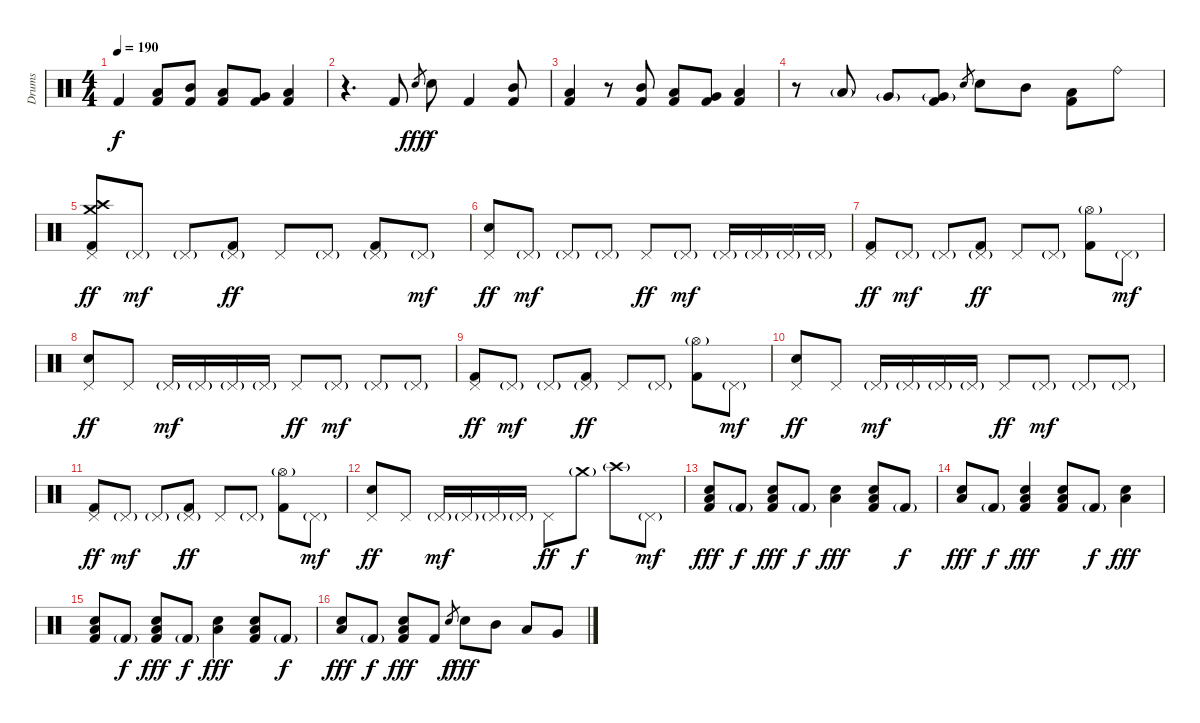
\track ("Drums" "Drums") {instrument percussion}
\staff {score}
\articulation defaults
\ts (4 4)
\tempo 190
\clef neutral
\ks c "Kick (hit) 2".4{dy f}
("Low Tom (hit)" "Kick (hit) 2").8 ("Mid Tom (hit)" "Kick (hit) 2").8 ("Low Tom (hit)" "Kick (hit) 2").8 ("Very Low Tom (hit)" "Kick (hit) 2").8 ("Low Floor Tom (hit)" "Kick (hit) 2").4 |
r.4{d} "Kick (hit) 2".8 "Electric Snare (hit)".8{gr dy fff} "Electric Snare (hit)".8{dy f} "Kick (hit) 2".4 ("Mid Tom (hit)" "Kick (hit) 2").8 |
("Low Tom (hit)" "Kick (hit) 2").4 r.8 ("Mid Tom (hit)" "Kick (hit) 2").8 ("Low Tom (hit)" "Kick (hit) 2").8 ("Very Low Tom (hit)" "Kick (hit) 2").8 ("Low Floor Tom (hit)" "Kick (hit) 2").4 |
r.8 "Low Tom (hit)"{g}.8 "Very Low Tom (hit)"{g}.8 ("Very Low Tom (hit)"{g} "Kick (hit) 2").8 "Electric Snare (hit)".8{gr} "Electric Snare (hit)".8 "Mid Tom (hit)".8 ("Low Tom (hit)" "Kick (hit) 2").8 "Ride (bell)".8 |
("Crash medium (hit)" "Crash high (hit)" "Pedal Hi-Hat (hit)" "Kick (hit) 2").8{dy ff} "Pedal Hi-Hat (hit)"{g}.8{dy mf} "Pedal Hi-Hat (hit)"{g}.8 ("Pedal Hi-Hat (hit)"{g} "Kick (hit) 2").8{dy ff} "Pedal Hi-Hat (hit)".8 "Pedal Hi-Hat (hit)"{g}.8 ("Pedal Hi-Hat (hit)"{g} "Kick (hit) 2").8 "Pedal Hi-Hat (hit)"{g}.8{dy mf} |
("Pedal Hi-Hat (hit)" "Electric Snare (hit)").8{dy ff} "Pedal Hi-Hat (hit)"{g}.8{dy mf} "Pedal Hi-Hat (hit)"{g}.8 "Pedal Hi-Hat (hit)"{g}.8 "Pedal Hi-Hat (hit)".8{dy ff} "Pedal Hi-Hat (hit)"{g}.8{dy mf} "Pedal Hi-Hat (hit)"{g}.16 "Pedal Hi-Hat (hit)"{g}.16 "Pedal Hi-Hat (hit)"{g}.16 "Pedal Hi-Hat (hit)"{g}.16 |
("Pedal Hi-Hat (hit)" "Kick (hit) 2").8{dy ff} "Pedal Hi-Hat (hit)"{g}.8{dy mf} "Pedal Hi-Hat (hit)"{g}.8 ("Pedal Hi-Hat (hit)"{g} "Kick (hit) 2").8{dy ff} "Pedal Hi-Hat (hit)".8 "Pedal Hi-Hat (hit)"{g}.8 ("Hi-Hat (open)"{g} "Kick (hit) 2").8 "Pedal Hi-Hat (hit)"{g}.8{dy mf} |
("Pedal Hi-Hat (hit)" "Electric Snare (hit)").8{dy ff} "Pedal Hi-Hat (hit)".8 "Pedal Hi-Hat (hit)"{g}.16{dy mf} "Pedal Hi-Hat (hit)"{g}.16 "Pedal Hi-Hat (hit)"{g}.16 "Pedal Hi-Hat (hit)"{g}.16 "Pedal Hi-Hat (hit)".8{dy ff} "Pedal Hi-Hat (hit)"{g}.8{dy mf} "Pedal Hi-Hat (hit)"{g}.8 "Pedal Hi-Hat (hit)"{g}.8 |
("Pedal Hi-Hat (hit)" "Kick (hit) 2").8{dy ff} "Pedal Hi-Hat (hit)"{g}.8{dy mf} "Pedal Hi-Hat (hit)"{g}.8 ("Pedal Hi-Hat (hit)"{g} "Kick (hit) 2").8{dy ff} "Pedal Hi-Hat (hit)".8 "Pedal Hi-Hat (hit)"{g}.8 ("Hi-Hat (open)"{g} "Kick (hit) 2").8 "Pedal Hi-Hat (hit)"{g}.8{dy mf} |
("Pedal Hi-Hat (hit)" "Electric Snare (hit)").8{dy ff} "Pedal Hi-Hat (hit)".8 "Pedal Hi-Hat (hit)"{g}.16{dy mf} "Pedal Hi-Hat (hit)"{g}.16 "Pedal Hi-Hat (hit)"{g}.16 "Pedal Hi-Hat (hit)"{g}.16 "Pedal Hi-Hat (hit)".8{dy ff} "Pedal Hi-Hat (hit)"{g}.8{dy mf} "Pedal Hi-Hat (hit)"{g}.8 "Pedal Hi-Hat (hit)"{g}.8 |
("Pedal Hi-Hat (hit)" "Kick (hit) 2").8{dy ff} "Pedal Hi-Hat (hit)"{g}.8{dy mf} "Pedal Hi-Hat (hit)"{g}.8 ("Pedal Hi-Hat (hit)"{g} "Kick (hit) 2").8{dy ff} "Pedal Hi-Hat (hit)".8 "Pedal Hi-Hat (hit)"{g}.8 ("Hi-Hat (open)"{g} "Kick (hit) 2").8 "Pedal Hi-Hat (hit)"{g}.8{dy mf} |
("Pedal Hi-Hat (hit)" "Electric Snare (hit)").8{dy ff} "Pedal Hi-Hat (hit)".8 "Pedal Hi-Hat (hit)"{g}.16{dy mf} "Pedal Hi-Hat (hit)"{g}.16 "Pedal Hi-Hat (hit)"{g}.16 "Pedal Hi-Hat (hit)"{g}.16 "Pedal Hi-Hat (hit)".8{dy ff} "Crash medium (hit)"{g}.8{dy f} "Crash high (hit)"{g}.8 "Pedal Hi-Hat (hit)"{g}.8{dy mf volume 8} |
("Low Tom (hit)" "Snare (hit) 2" "Kick (hit) 2").8{dy fff volume 16} "Kick (hit) 2"{g}.8{dy f} ("Low Tom (hit)" "Snare (hit) 2" "Kick (hit) 2").8{dy fff} "Kick (hit) 2"{g}.8{dy f} ("Low Tom (hit)" "Snare (hit) 2").4{dy fff} ("Low Tom (hit)" "Snare (hit) 2" "Kick (hit) 2").8 "Kick (hit) 2"{g}.8{dy f} |
("Low Tom (hit)" "Snare (hit) 2").8{dy fff} "Kick (hit) 2"{g}.8{dy f} ("Low Tom (hit)" "Snare (hit) 2" "Kick (hit) 2").4{dy fff} ("Low Tom (hit)" "Snare (hit) 2" "Kick (hit) 2").8 "Kick (hit) 2"{g}.8{dy f} ("Low Tom (hit)" "Snare (hit) 2").4{dy fff} |
("Low Tom (hit)" "Snare (hit) 2" "Kick (hit) 2").8 "Kick (hit) 2"{g}.8{dy f} ("Low Tom (hit)" "Snare (hit) 2" "Kick (hit) 2").8{dy fff} "Kick (hit) 2"{g}.8{dy f} ("Low Tom (hit)" "Snare (hit) 2").4{dy fff} ("Low Tom (hit)" "Snare (hit) 2" "Kick (hit) 2").8 "Kick (hit) 2"{g}.8{dy f} |
("Low Tom (hit)" "Snare (hit) 2").8{dy fff} "Kick (hit) 2"{g}.8{dy f} ("Low Tom (hit)" "Snare (hit) 2" "Kick (hit) 2").8{dy fff} "Kick (hit) 2".8 "Electric Snare (hit)".8{gr dy f} "Electric Snare (hit)".8{dy fff} "Mid Tom (hit)".8 "Low Tom (hit)".8 "Very Low Tom (hit)".8
